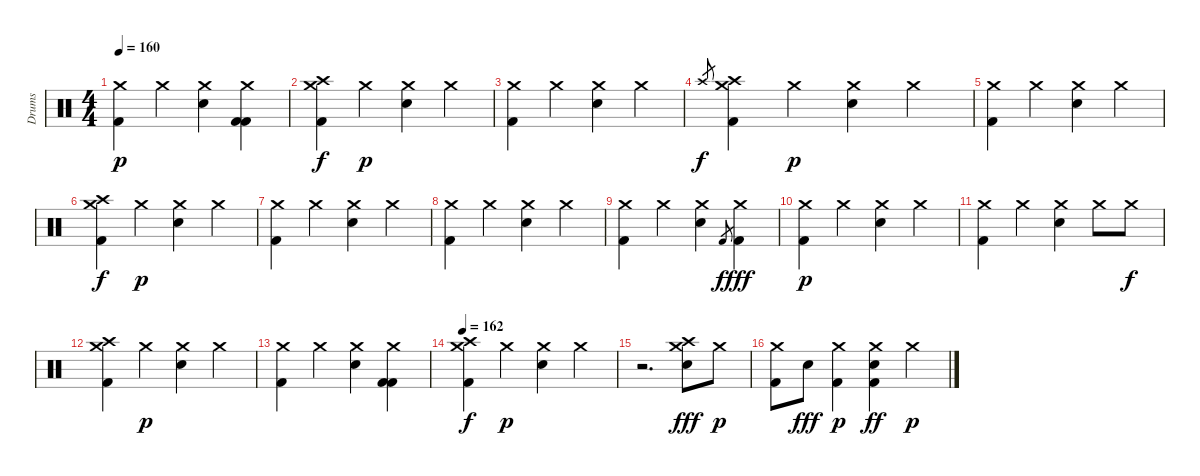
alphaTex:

\track ("Drums" "Drums") {instrument percussion}
\staff {score}
\articulation defaults
\ts (4 4)
\tempo 160
\clef neutral
\ks c
("Crash medium (hit)" "Kick (hit) 2").4{dy p} "Crash medium (hit)".4 ("Crash medium (hit)" "Snare (hit) 2").4 ("Crash medium (hit)" "Kick (hit) 2" "Kick (hit) 2").4 |
("Crash medium (hit)" "Kick (hit) 2" "Crash high (hit)").4{dy f} "Crash medium (hit)".4{dy p} ("Crash medium (hit)" "Snare (hit) 2").4 "Crash medium (hit)".4 |
("Crash medium (hit)" "Kick (hit) 2").4 "Crash medium (hit)".4 ("Crash medium (hit)" "Snare (hit) 2").4 "Crash medium (hit)".4 |
"Crash high (hit)".8{gr dy f} ("Crash medium (hit)" "Kick (hit) 2" "Crash high (hit)").4 "Crash medium (hit)".4{dy p} ("Crash medium (hit)" "Snare (hit) 2").4 "Crash medium (hit)".4 |
("Crash medium (hit)" "Kick (hit) 2").4 "Crash medium (hit)".4 ("Crash medium (hit)" "Snare (hit) 2").4 "Crash medium (hit)".4 |
("Crash medium (hit)" "Kick (hit) 2" "Crash high (hit)").4{dy f} "Crash medium (hit)".4{dy p} ("Crash medium (hit)" "Snare (hit) 2").4 "Crash medium (hit)".4 |
("Crash medium (hit)" "Kick (hit) 2").4 "Crash medium (hit)".4 ("Crash medium (hit)" "Snare (hit) 2").4 "Crash medium (hit)".4 |
("Crash medium (hit)" "Kick (hit) 2").4 "Crash medium (hit)".4 ("Crash medium (hit)" "Snare (hit) 2").4 "Crash medium (hit)".4 |
("Crash medium (hit)" "Kick (hit) 2").4 "Crash medium (hit)".4 ("Crash medium (hit)" "Snare (hit) 2").4 "Kick (hit) 2".8{gr dy f} ("Crash medium (hit)" "Kick (hit) 2").4{dy fff} |
("Crash medium (hit)" "Kick (hit) 2").4{dy p} "Crash medium (hit)".4 ("Crash medium (hit)" "Snare (hit) 2").4 "Crash medium (hit)".4 |
("Crash medium (hit)" "Kick (hit) 2").4 "Crash medium (hit)".4 ("Crash medium (hit)" "Snare (hit) 2").4 "Crash medium (hit)".8 "Crash medium (hit)".8{dy f} |
("Crash medium (hit)" "Kick (hit) 2" "Crash high (hit)").4 "Crash medium (hit)".4{dy p} ("Crash medium (hit)" "Snare (hit) 2").4 "Crash medium (hit)".4 |
("Crash medium (hit)" "Kick (hit) 2").4 "Crash medium (hit)".4 ("Crash medium (hit)" "Snare (hit) 2").4 ("Crash medium (hit)" "Kick (hit) 2" "Kick (hit) 2").4 |
\tempo 162
("Crash medium (hit)" "Crash high (hit)" "Kick (hit) 2").4{dy f} "Crash medium (hit)".4{dy p} ("Crash medium (hit)" "Snare (hit) 2").4 "Crash medium (hit)".4 |
r.2{d} ("Crash medium (hit)" "Crash high (hit)" "Snare (hit) 2").8{dy fff} "Crash medium (hit)".8{dy p} |
("Crash medium (hit)" "Kick (hit) 2").8 "Snare (hit) 2".8{dy fff} ("Crash medium (hit)" "Kick (hit) 2").4{dy p} ("Crash medium (hit)" "Snare (hit) 2" "Kick (hit) 2").4{dy ff} "Crash medium (hit)".4{dy p}
